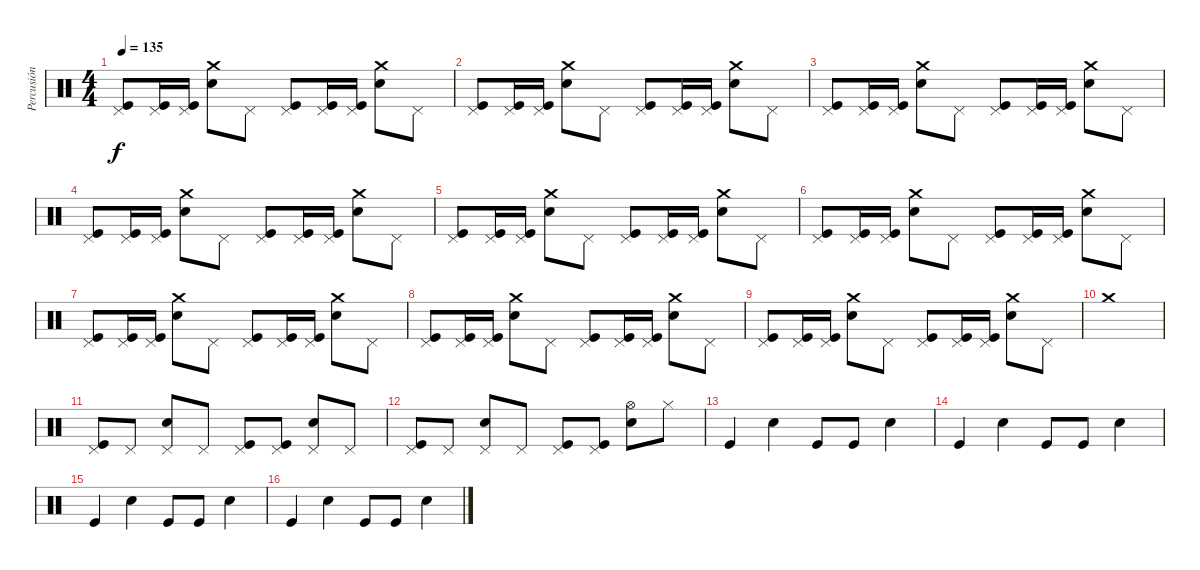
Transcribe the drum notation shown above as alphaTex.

\track ("Percusión" "Percusión") {instrument percussion}
\staff {score}
\articulation defaults
\ts (4 4)
\tempo 135
\clef neutral
\ks c
("Pedal Hi-Hat (hit)" "Kick (hit)").8{dy f} ("Pedal Hi-Hat (hit)" "Kick (hit)").16 ("Pedal Hi-Hat (hit)" "Kick (hit)").16 ("Crash medium (hit)" "Electric Snare (hit)").8 "Pedal Hi-Hat (hit)".8 ("Pedal Hi-Hat (hit)" "Kick (hit)").8 ("Pedal Hi-Hat (hit)" "Kick (hit)").16 ("Pedal Hi-Hat (hit)" "Kick (hit)").16 ("Crash medium (hit)" "Electric Snare (hit)").8 "Pedal Hi-Hat (hit)".8 |
("Pedal Hi-Hat (hit)" "Kick (hit)").8 ("Pedal Hi-Hat (hit)" "Kick (hit)").16 ("Pedal Hi-Hat (hit)" "Kick (hit)").16 ("Crash medium (hit)" "Electric Snare (hit)").8 "Pedal Hi-Hat (hit)".8 ("Pedal Hi-Hat (hit)" "Kick (hit)").8 ("Pedal Hi-Hat (hit)" "Kick (hit)").16 ("Pedal Hi-Hat (hit)" "Kick (hit)").16 ("Crash medium (hit)" "Electric Snare (hit)").8 "Pedal Hi-Hat (hit)".8 |
("Pedal Hi-Hat (hit)" "Kick (hit)").8 ("Pedal Hi-Hat (hit)" "Kick (hit)").16 ("Pedal Hi-Hat (hit)" "Kick (hit)").16 ("Crash medium (hit)" "Electric Snare (hit)").8 "Pedal Hi-Hat (hit)".8 ("Pedal Hi-Hat (hit)" "Kick (hit)").8 ("Pedal Hi-Hat (hit)" "Kick (hit)").16 ("Pedal Hi-Hat (hit)" "Kick (hit)").16 ("Crash medium (hit)" "Electric Snare (hit)").8 "Pedal Hi-Hat (hit)".8 |
("Pedal Hi-Hat (hit)" "Kick (hit)").8 ("Pedal Hi-Hat (hit)" "Kick (hit)").16 ("Pedal Hi-Hat (hit)" "Kick (hit)").16 ("Crash medium (hit)" "Electric Snare (hit)").8 "Pedal Hi-Hat (hit)".8 ("Pedal Hi-Hat (hit)" "Kick (hit)").8 ("Pedal Hi-Hat (hit)" "Kick (hit)").16 ("Pedal Hi-Hat (hit)" "Kick (hit)").16 ("Crash medium (hit)" "Electric Snare (hit)").8 "Pedal Hi-Hat (hit)".8 |
("Pedal Hi-Hat (hit)" "Kick (hit)").8 ("Pedal Hi-Hat (hit)" "Kick (hit)").16 ("Pedal Hi-Hat (hit)" "Kick (hit)").16 ("Crash medium (hit)" "Electric Snare (hit)").8 "Pedal Hi-Hat (hit)".8 ("Pedal Hi-Hat (hit)" "Kick (hit)").8 ("Pedal Hi-Hat (hit)" "Kick (hit)").16 ("Pedal Hi-Hat (hit)" "Kick (hit)").16 ("Crash medium (hit)" "Electric Snare (hit)").8 "Pedal Hi-Hat (hit)".8 |
("Pedal Hi-Hat (hit)" "Kick (hit)").8 ("Pedal Hi-Hat (hit)" "Kick (hit)").16 ("Pedal Hi-Hat (hit)" "Kick (hit)").16 ("Crash medium (hit)" "Electric Snare (hit)").8 "Pedal Hi-Hat (hit)".8 ("Pedal Hi-Hat (hit)" "Kick (hit)").8 ("Pedal Hi-Hat (hit)" "Kick (hit)").16 ("Pedal Hi-Hat (hit)" "Kick (hit)").16 ("Crash medium (hit)" "Electric Snare (hit)").8 "Pedal Hi-Hat (hit)".8 |
("Pedal Hi-Hat (hit)" "Kick (hit)").8 ("Pedal Hi-Hat (hit)" "Kick (hit)").16 ("Pedal Hi-Hat (hit)" "Kick (hit)").16 ("Crash medium (hit)" "Electric Snare (hit)").8 "Pedal Hi-Hat (hit)".8 ("Pedal Hi-Hat (hit)" "Kick (hit)").8 ("Pedal Hi-Hat (hit)" "Kick (hit)").16 ("Pedal Hi-Hat (hit)" "Kick (hit)").16 ("Crash medium (hit)" "Electric Snare (hit)").8 "Pedal Hi-Hat (hit)".8 |
("Pedal Hi-Hat (hit)" "Kick (hit)").8 ("Pedal Hi-Hat (hit)" "Kick (hit)").16 ("Pedal Hi-Hat (hit)" "Kick (hit)").16 ("Crash medium (hit)" "Electric Snare (hit)").8 "Pedal Hi-Hat (hit)".8 ("Pedal Hi-Hat (hit)" "Kick (hit)").8 ("Pedal Hi-Hat (hit)" "Kick (hit)").16 ("Pedal Hi-Hat (hit)" "Kick (hit)").16 ("Crash medium (hit)" "Electric Snare (hit)").8 "Pedal Hi-Hat (hit)".8 |
("Pedal Hi-Hat (hit)" "Kick (hit)").8 ("Pedal Hi-Hat (hit)" "Kick (hit)").16 ("Pedal Hi-Hat (hit)" "Kick (hit)").16 ("Crash medium (hit)" "Electric Snare (hit)").8 "Pedal Hi-Hat (hit)".8 ("Pedal Hi-Hat (hit)" "Kick (hit)").8 ("Pedal Hi-Hat (hit)" "Kick (hit)").16 ("Pedal Hi-Hat (hit)" "Kick (hit)").16 ("Crash medium (hit)" "Electric Snare (hit)").8 "Pedal Hi-Hat (hit)".8 |
"Crash medium (hit)".1 |
("Pedal Hi-Hat (hit)" "Kick (hit)").8 "Pedal Hi-Hat (hit)".8 ("Pedal Hi-Hat (hit)" "Electric Snare (hit)").8 "Pedal Hi-Hat (hit)".8 ("Pedal Hi-Hat (hit)" "Kick (hit)").8 ("Pedal Hi-Hat (hit)" "Kick (hit)").8 ("Pedal Hi-Hat (hit)" "Electric Snare (hit)").8 "Pedal Hi-Hat (hit)".8 |
("Pedal Hi-Hat (hit)" "Kick (hit)").8 "Pedal Hi-Hat (hit)".8 ("Pedal Hi-Hat (hit)" "Electric Snare (hit)").8 "Pedal Hi-Hat (hit)".8 ("Pedal Hi-Hat (hit)" "Kick (hit)").8 ("Pedal Hi-Hat (hit)" "Kick (hit)").8 ("Hi-Hat (open)" "Electric Snare (hit)").8 "Hi-Hat (closed)".8 |
"Kick (hit)".4 "Electric Snare (hit)".4 "Kick (hit)".8 "Kick (hit)".8 "Electric Snare (hit)".4 |
"Kick (hit)".4 "Electric Snare (hit)".4 "Kick (hit)".8 "Kick (hit)".8 "Electric Snare (hit)".4 |
"Kick (hit)".4 "Electric Snare (hit)".4 "Kick (hit)".8 "Kick (hit)".8 "Electric Snare (hit)".4 |
"Kick (hit)".4 "Electric Snare (hit)".4 "Kick (hit)".8 "Kick (hit)".8 "Electric Snare (hit)".4
